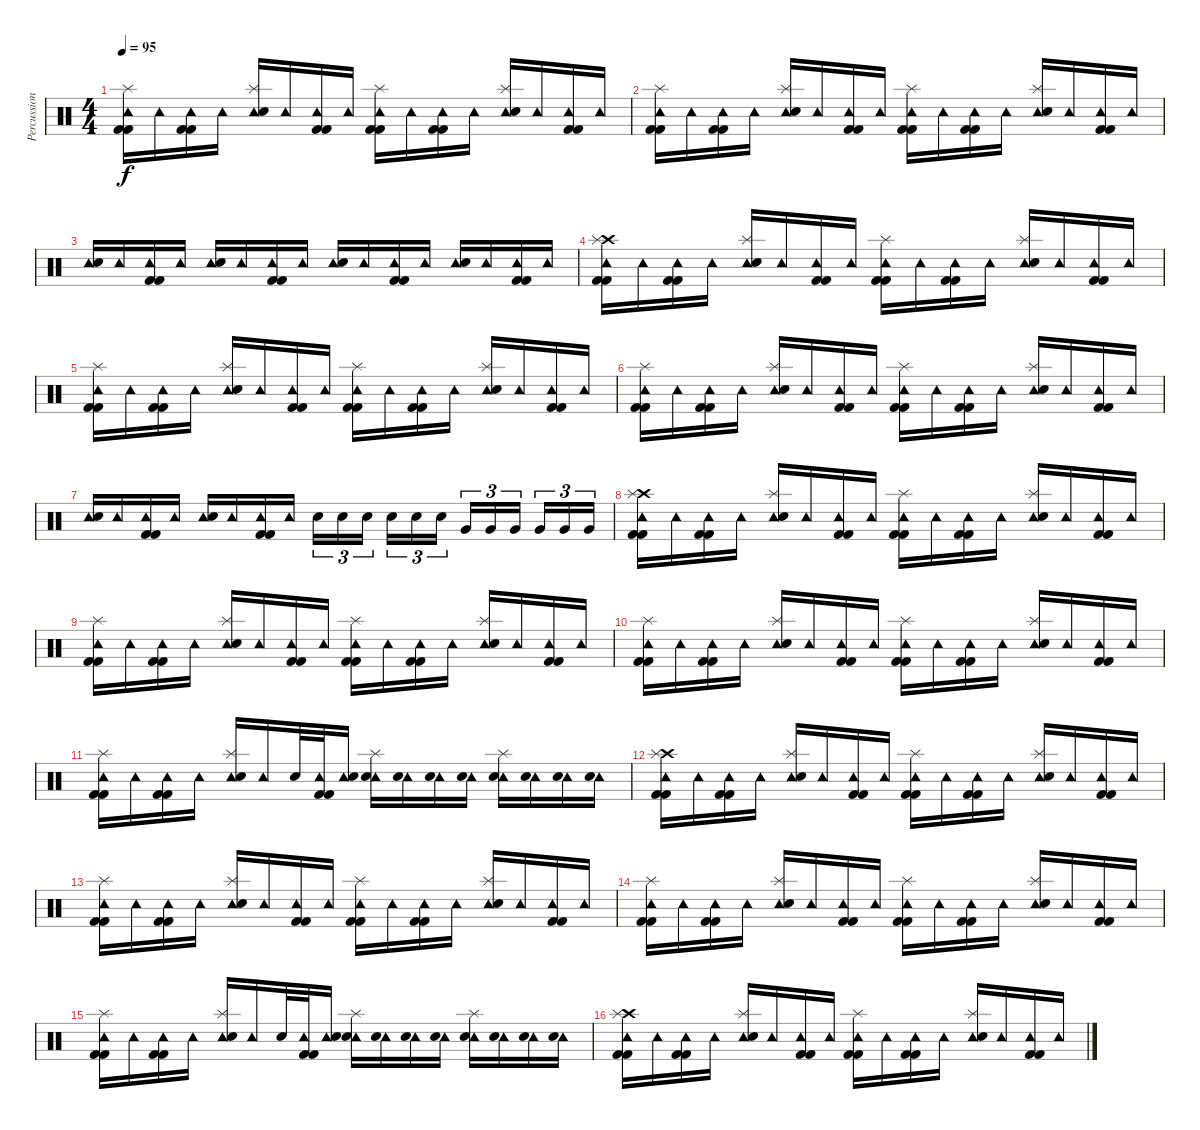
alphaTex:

\track ("Percussion" "Percussion") {instrument percussion}
\staff {score}
\articulation defaults
\ts (4 4)
\tempo 95
\clef neutral
\ks c
("Tambourine (hit)" "Kick (hit) 2" "Kick (hit) 2" "Splash (hit)").16{dy f} "Tambourine (hit)".16 ("Tambourine (hit)" "Kick (hit) 2" "Kick (hit) 2").16 "Tambourine (hit)".16 ("Tambourine (hit)" "Electric Snare (hit)" "Splash (hit)").16 "Tambourine (hit)".16 ("Tambourine (hit)" "Kick (hit) 2" "Kick (hit) 2").16 "Tambourine (hit)".16 ("Tambourine (hit)" "Kick (hit) 2" "Kick (hit) 2" "Splash (hit)").16 "Tambourine (hit)".16 ("Tambourine (hit)" "Kick (hit) 2" "Kick (hit) 2").16 "Tambourine (hit)".16 ("Tambourine (hit)" "Electric Snare (hit)" "Splash (hit)").16 "Tambourine (hit)".16 ("Tambourine (hit)" "Kick (hit) 2" "Kick (hit) 2").16 "Tambourine (hit)".16 |
("Tambourine (hit)" "Kick (hit) 2" "Kick (hit) 2" "Splash (hit)").16 "Tambourine (hit)".16 ("Tambourine (hit)" "Kick (hit) 2" "Kick (hit) 2").16 "Tambourine (hit)".16 ("Tambourine (hit)" "Electric Snare (hit)" "Splash (hit)").16 "Tambourine (hit)".16 ("Tambourine (hit)" "Kick (hit) 2" "Kick (hit) 2").16 "Tambourine (hit)".16 ("Tambourine (hit)" "Kick (hit) 2" "Kick (hit) 2" "Splash (hit)").16 "Tambourine (hit)".16 ("Tambourine (hit)" "Kick (hit) 2" "Kick (hit) 2").16 "Tambourine (hit)".16 ("Tambourine (hit)" "Electric Snare (hit)" "Splash (hit)").16 "Tambourine (hit)".16 ("Tambourine (hit)" "Kick (hit) 2" "Kick (hit) 2").16 "Tambourine (hit)".16 |
("Tambourine (hit)" "Electric Snare (hit)").16 "Tambourine (hit)".16 ("Tambourine (hit)" "Kick (hit) 2" "Kick (hit) 2").16 "Tambourine (hit)".16 ("Tambourine (hit)" "Electric Snare (hit)").16 "Tambourine (hit)".16 ("Tambourine (hit)" "Kick (hit) 2" "Kick (hit) 2").16 "Tambourine (hit)".16 ("Tambourine (hit)" "Electric Snare (hit)").16 "Tambourine (hit)".16 ("Tambourine (hit)" "Kick (hit) 2" "Kick (hit) 2").16 "Tambourine (hit)".16 ("Tambourine (hit)" "Electric Snare (hit)").16 "Tambourine (hit)".16 ("Tambourine (hit)" "Kick (hit) 2" "Kick (hit) 2").16 "Tambourine (hit)".16 |
("Tambourine (hit)" "Crash high (hit)" "Kick (hit) 2" "Kick (hit) 2" "Splash (hit)").16 "Tambourine (hit)".16 ("Tambourine (hit)" "Kick (hit) 2" "Kick (hit) 2").16 "Tambourine (hit)".16 ("Tambourine (hit)" "Electric Snare (hit)" "Splash (hit)").16 "Tambourine (hit)".16 ("Tambourine (hit)" "Kick (hit) 2" "Kick (hit) 2").16 "Tambourine (hit)".16 ("Tambourine (hit)" "Kick (hit) 2" "Kick (hit) 2" "Splash (hit)").16 "Tambourine (hit)".16 ("Tambourine (hit)" "Kick (hit) 2" "Kick (hit) 2").16 "Tambourine (hit)".16 ("Tambourine (hit)" "Electric Snare (hit)" "Splash (hit)").16 "Tambourine (hit)".16 ("Tambourine (hit)" "Kick (hit) 2" "Kick (hit) 2").16 "Tambourine (hit)".16 |
("Tambourine (hit)" "Kick (hit) 2" "Kick (hit) 2" "Splash (hit)").16 "Tambourine (hit)".16 ("Tambourine (hit)" "Kick (hit) 2" "Kick (hit) 2").16 "Tambourine (hit)".16 ("Tambourine (hit)" "Electric Snare (hit)" "Splash (hit)").16 "Tambourine (hit)".16 ("Tambourine (hit)" "Kick (hit) 2" "Kick (hit) 2").16 "Tambourine (hit)".16 ("Tambourine (hit)" "Kick (hit) 2" "Kick (hit) 2" "Splash (hit)").16 "Tambourine (hit)".16 ("Tambourine (hit)" "Kick (hit) 2" "Kick (hit) 2").16 "Tambourine (hit)".16 ("Tambourine (hit)" "Electric Snare (hit)" "Splash (hit)").16 "Tambourine (hit)".16 ("Tambourine (hit)" "Kick (hit) 2" "Kick (hit) 2").16 "Tambourine (hit)".16 |
("Tambourine (hit)" "Kick (hit) 2" "Kick (hit) 2" "Splash (hit)").16 "Tambourine (hit)".16 ("Tambourine (hit)" "Kick (hit) 2" "Kick (hit) 2").16 "Tambourine (hit)".16 ("Tambourine (hit)" "Electric Snare (hit)" "Splash (hit)").16 "Tambourine (hit)".16 ("Tambourine (hit)" "Kick (hit) 2" "Kick (hit) 2").16 "Tambourine (hit)".16 ("Tambourine (hit)" "Kick (hit) 2" "Kick (hit) 2" "Splash (hit)").16 "Tambourine (hit)".16 ("Tambourine (hit)" "Kick (hit) 2" "Kick (hit) 2").16 "Tambourine (hit)".16 ("Tambourine (hit)" "Electric Snare (hit)" "Splash (hit)").16 "Tambourine (hit)".16 ("Tambourine (hit)" "Kick (hit) 2" "Kick (hit) 2").16 "Tambourine (hit)".16 |
("Tambourine (hit)" "Electric Snare (hit)").16 "Tambourine (hit)".16 ("Tambourine (hit)" "Kick (hit) 2" "Kick (hit) 2").16 "Tambourine (hit)".16 ("Tambourine (hit)" "Electric Snare (hit)").16 "Tambourine (hit)".16 ("Tambourine (hit)" "Kick (hit) 2" "Kick (hit) 2").16 "Tambourine (hit)".16 "Electric Snare (hit)".16{tu (3 2)} "Electric Snare (hit)".16{tu (3 2)} "Electric Snare (hit)".16{tu (3 2)} "Electric Snare (hit)".16{tu (3 2)} "Electric Snare (hit)".16{tu (3 2)} "Electric Snare (hit)".16{tu (3 2)} "Very Low Tom (hit)".16{tu (3 2)} "Very Low Tom (hit)".16{tu (3 2)} "Very Low Tom (hit)".16{tu (3 2)} "Very Low Tom (hit)".16{tu (3 2)} "Very Low Tom (hit)".16{tu (3 2)} "Very Low Tom (hit)".16{tu (3 2)} |
("Tambourine (hit)" "Crash high (hit)" "Kick (hit) 2" "Kick (hit) 2" "Splash (hit)").16 "Tambourine (hit)".16 ("Tambourine (hit)" "Kick (hit) 2" "Kick (hit) 2").16 "Tambourine (hit)".16 ("Tambourine (hit)" "Electric Snare (hit)" "Splash (hit)").16 "Tambourine (hit)".16 ("Tambourine (hit)" "Kick (hit) 2" "Kick (hit) 2").16 "Tambourine (hit)".16 ("Tambourine (hit)" "Kick (hit) 2" "Kick (hit) 2" "Splash (hit)").16 "Tambourine (hit)".16 ("Tambourine (hit)" "Kick (hit) 2" "Kick (hit) 2").16 "Tambourine (hit)".16 ("Tambourine (hit)" "Electric Snare (hit)" "Splash (hit)").16 "Tambourine (hit)".16 ("Tambourine (hit)" "Kick (hit) 2" "Kick (hit) 2").16 "Tambourine (hit)".16 |
("Tambourine (hit)" "Kick (hit) 2" "Kick (hit) 2" "Splash (hit)").16 "Tambourine (hit)".16 ("Tambourine (hit)" "Kick (hit) 2" "Kick (hit) 2").16 "Tambourine (hit)".16 ("Tambourine (hit)" "Electric Snare (hit)" "Splash (hit)").16 "Tambourine (hit)".16 ("Tambourine (hit)" "Kick (hit) 2" "Kick (hit) 2").16 "Tambourine (hit)".16 ("Tambourine (hit)" "Kick (hit) 2" "Kick (hit) 2" "Splash (hit)").16 "Tambourine (hit)".16 ("Tambourine (hit)" "Kick (hit) 2" "Kick (hit) 2").16 "Tambourine (hit)".16 ("Tambourine (hit)" "Electric Snare (hit)" "Splash (hit)").16 "Tambourine (hit)".16 ("Tambourine (hit)" "Kick (hit) 2" "Kick (hit) 2").16 "Tambourine (hit)".16 |
("Tambourine (hit)" "Kick (hit) 2" "Kick (hit) 2" "Splash (hit)").16 "Tambourine (hit)".16 ("Tambourine (hit)" "Kick (hit) 2" "Kick (hit) 2").16 "Tambourine (hit)".16 ("Tambourine (hit)" "Electric Snare (hit)" "Splash (hit)").16 "Tambourine (hit)".16 ("Tambourine (hit)" "Kick (hit) 2" "Kick (hit) 2").16 "Tambourine (hit)".16 ("Tambourine (hit)" "Kick (hit) 2" "Kick (hit) 2" "Splash (hit)").16 "Tambourine (hit)".16 ("Tambourine (hit)" "Kick (hit) 2" "Kick (hit) 2").16 "Tambourine (hit)".16 ("Tambourine (hit)" "Electric Snare (hit)" "Splash (hit)").16 "Tambourine (hit)".16 ("Tambourine (hit)" "Kick (hit) 2" "Kick (hit) 2").16 "Tambourine (hit)".16 |
("Tambourine (hit)" "Kick (hit) 2" "Kick (hit) 2" "Splash (hit)").16 "Tambourine (hit)".16 ("Tambourine (hit)" "Kick (hit) 2" "Kick (hit) 2").16 "Tambourine (hit)".16 ("Tambourine (hit)" "Electric Snare (hit)" "Splash (hit)").16 "Tambourine (hit)".16 "Electric Snare (hit)".32 ("Tambourine (hit)" "Kick (hit) 2" "Kick (hit) 2").32 ("Tambourine (hit)" "Electric Snare (hit)").16 ("Tambourine (hit)" "Electric Snare (hit)" "Splash (hit)").16 ("Tambourine (hit)" "Electric Snare (hit)").16 ("Tambourine (hit)" "Electric Snare (hit)").16 ("Tambourine (hit)" "Snare (hit) 2").16 ("Tambourine (hit)" "Snare (hit) 2" "Splash (hit)").16 ("Tambourine (hit)" "Snare (hit) 2").16 ("Tambourine (hit)" "Snare (hit) 2").16 ("Tambourine (hit)" "Snare (hit) 2").16 |
("Tambourine (hit)" "Crash high (hit)" "Kick (hit) 2" "Kick (hit) 2" "Splash (hit)").16 "Tambourine (hit)".16 ("Tambourine (hit)" "Kick (hit) 2" "Kick (hit) 2").16 "Tambourine (hit)".16 ("Tambourine (hit)" "Electric Snare (hit)" "Splash (hit)").16 "Tambourine (hit)".16 ("Tambourine (hit)" "Kick (hit) 2" "Kick (hit) 2").16 "Tambourine (hit)".16 ("Tambourine (hit)" "Kick (hit) 2" "Kick (hit) 2" "Splash (hit)").16 "Tambourine (hit)".16 ("Tambourine (hit)" "Kick (hit) 2" "Kick (hit) 2").16 "Tambourine (hit)".16 ("Tambourine (hit)" "Electric Snare (hit)" "Splash (hit)").16 "Tambourine (hit)".16 ("Tambourine (hit)" "Kick (hit) 2" "Kick (hit) 2").16 "Tambourine (hit)".16 |
("Tambourine (hit)" "Kick (hit) 2" "Kick (hit) 2" "Splash (hit)").16 "Tambourine (hit)".16 ("Tambourine (hit)" "Kick (hit) 2" "Kick (hit) 2").16 "Tambourine (hit)".16 ("Tambourine (hit)" "Electric Snare (hit)" "Splash (hit)").16 "Tambourine (hit)".16 ("Tambourine (hit)" "Kick (hit) 2" "Kick (hit) 2").16 "Tambourine (hit)".16 ("Tambourine (hit)" "Kick (hit) 2" "Kick (hit) 2" "Splash (hit)").16 "Tambourine (hit)".16 ("Tambourine (hit)" "Kick (hit) 2" "Kick (hit) 2").16 "Tambourine (hit)".16 ("Tambourine (hit)" "Electric Snare (hit)" "Splash (hit)").16 "Tambourine (hit)".16 ("Tambourine (hit)" "Kick (hit) 2" "Kick (hit) 2").16 "Tambourine (hit)".16 |
("Tambourine (hit)" "Kick (hit) 2" "Kick (hit) 2" "Splash (hit)").16 "Tambourine (hit)".16 ("Tambourine (hit)" "Kick (hit) 2" "Kick (hit) 2").16 "Tambourine (hit)".16 ("Tambourine (hit)" "Electric Snare (hit)" "Splash (hit)").16 "Tambourine (hit)".16 ("Tambourine (hit)" "Kick (hit) 2" "Kick (hit) 2").16 "Tambourine (hit)".16 ("Tambourine (hit)" "Kick (hit) 2" "Kick (hit) 2" "Splash (hit)").16 "Tambourine (hit)".16 ("Tambourine (hit)" "Kick (hit) 2" "Kick (hit) 2").16 "Tambourine (hit)".16 ("Tambourine (hit)" "Electric Snare (hit)" "Splash (hit)").16 "Tambourine (hit)".16 ("Tambourine (hit)" "Kick (hit) 2" "Kick (hit) 2").16 "Tambourine (hit)".16 |
("Tambourine (hit)" "Kick (hit) 2" "Kick (hit) 2" "Splash (hit)").16 "Tambourine (hit)".16 ("Tambourine (hit)" "Kick (hit) 2" "Kick (hit) 2").16 "Tambourine (hit)".16 ("Tambourine (hit)" "Electric Snare (hit)" "Splash (hit)").16 "Tambourine (hit)".16 "Electric Snare (hit)".32 ("Tambourine (hit)" "Kick (hit) 2" "Kick (hit) 2").32 ("Tambourine (hit)" "Electric Snare (hit)").16 ("Tambourine (hit)" "Electric Snare (hit)" "Splash (hit)").16 ("Tambourine (hit)" "Electric Snare (hit)").16 ("Tambourine (hit)" "Electric Snare (hit)").16 ("Tambourine (hit)" "Snare (hit) 2").16 ("Tambourine (hit)" "Snare (hit) 2" "Splash (hit)").16 ("Tambourine (hit)" "Snare (hit) 2").16 ("Tambourine (hit)" "Snare (hit) 2").16 ("Tambourine (hit)" "Snare (hit) 2").16 |
("Tambourine (hit)" "Crash high (hit)" "Kick (hit) 2" "Kick (hit) 2" "Splash (hit)").16 "Tambourine (hit)".16 ("Tambourine (hit)" "Kick (hit) 2" "Kick (hit) 2").16 "Tambourine (hit)".16 ("Tambourine (hit)" "Electric Snare (hit)" "Splash (hit)").16 "Tambourine (hit)".16 ("Tambourine (hit)" "Kick (hit) 2" "Kick (hit) 2").16 "Tambourine (hit)".16 ("Tambourine (hit)" "Kick (hit) 2" "Kick (hit) 2" "Splash (hit)").16 "Tambourine (hit)".16 ("Tambourine (hit)" "Kick (hit) 2" "Kick (hit) 2").16 "Tambourine (hit)".16 ("Tambourine (hit)" "Electric Snare (hit)" "Splash (hit)").16 "Tambourine (hit)".16 ("Tambourine (hit)" "Kick (hit) 2" "Kick (hit) 2").16 "Tambourine (hit)".16
